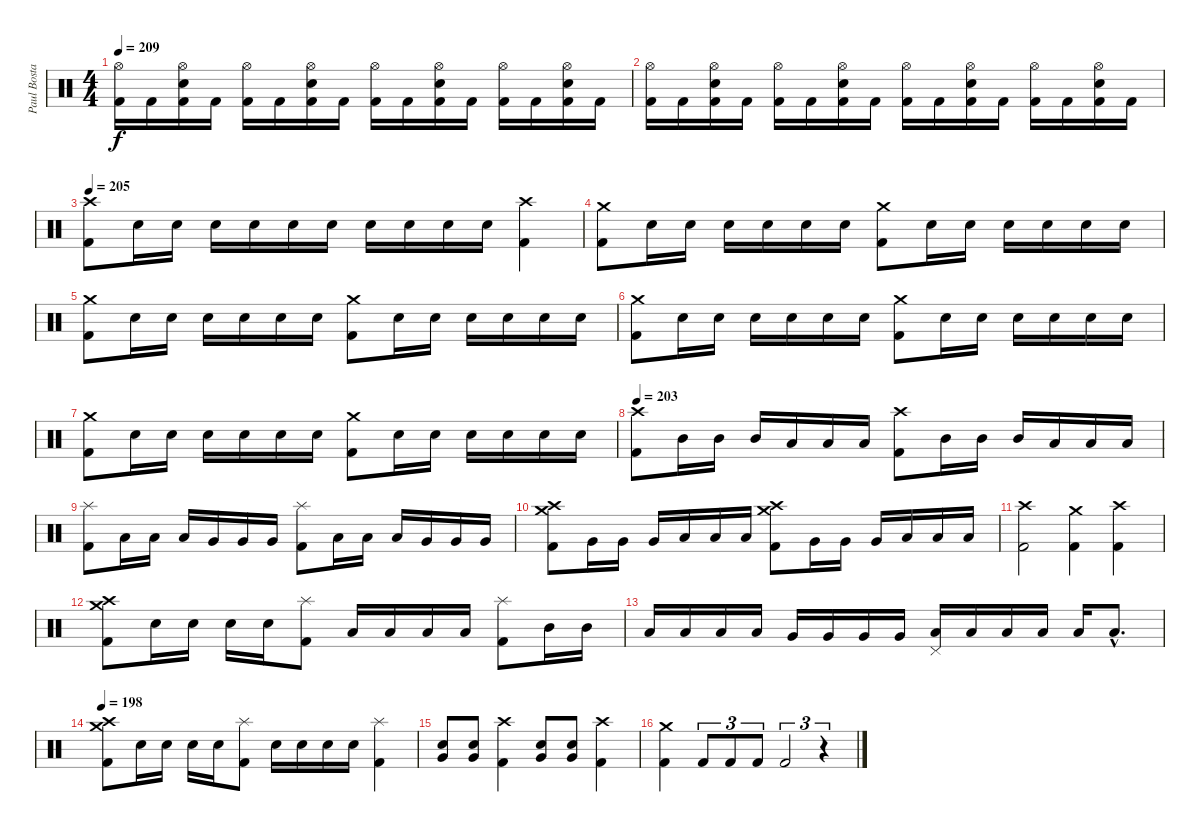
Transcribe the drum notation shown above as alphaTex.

\track ("Paul Bostaph" "Paul Bosta") {instrument percussion}
\staff {score}
\articulation defaults
\ts (4 4)
\tempo 209
\clef neutral
\ks c
("Hi-Hat (open)" "Kick (hit) 2").16{dy f} "Kick (hit) 2".16 ("Electric Snare (hit)" "Hi-Hat (open)" "Kick (hit) 2").16 "Kick (hit) 2".16 ("Hi-Hat (open)" "Kick (hit) 2").16 "Kick (hit) 2".16 ("Electric Snare (hit)" "Hi-Hat (open)" "Kick (hit) 2").16 "Kick (hit) 2".16 ("Hi-Hat (open)" "Kick (hit) 2").16 "Kick (hit) 2".16 ("Electric Snare (hit)" "Hi-Hat (open)" "Kick (hit) 2").16 "Kick (hit) 2".16 ("Hi-Hat (open)" "Kick (hit) 2").16 "Kick (hit) 2".16 ("Electric Snare (hit)" "Hi-Hat (open)" "Kick (hit) 2").16 "Kick (hit) 2".16 |
("Hi-Hat (open)" "Kick (hit) 2").16 "Kick (hit) 2".16 ("Electric Snare (hit)" "Hi-Hat (open)" "Kick (hit) 2").16 "Kick (hit) 2".16 ("Hi-Hat (open)" "Kick (hit) 2").16 "Kick (hit) 2".16 ("Electric Snare (hit)" "Hi-Hat (open)" "Kick (hit) 2").16 "Kick (hit) 2".16 ("Hi-Hat (open)" "Kick (hit) 2").16 "Kick (hit) 2".16 ("Electric Snare (hit)" "Hi-Hat (open)" "Kick (hit) 2").16 "Kick (hit) 2".16 ("Hi-Hat (open)" "Kick (hit) 2").16 "Kick (hit) 2".16 ("Electric Snare (hit)" "Hi-Hat (open)" "Kick (hit) 2").16 "Kick (hit) 2".16 |
\tempo 205
("Crash high (hit)" "Kick (hit) 2").8 "Electric Snare (hit)".16 "Electric Snare (hit)".16 "Electric Snare (hit)".16 "Electric Snare (hit)".16 "Electric Snare (hit)".16 "Electric Snare (hit)".16 "Electric Snare (hit)".16 "Electric Snare (hit)".16 "Electric Snare (hit)".16 "Electric Snare (hit)".16 ("Crash high (hit)" "Kick (hit) 2").4 |
("Crash medium (hit)" "Kick (hit) 2").8 "Electric Snare (hit)".16 "Electric Snare (hit)".16 "Electric Snare (hit)".16 "Electric Snare (hit)".16 "Electric Snare (hit)".16 "Electric Snare (hit)".16 ("Crash medium (hit)" "Kick (hit) 2").8 "Electric Snare (hit)".16 "Electric Snare (hit)".16 "Electric Snare (hit)".16 "Electric Snare (hit)".16 "Electric Snare (hit)".16 "Electric Snare (hit)".16 |
("Crash medium (hit)" "Kick (hit) 2").8 "Electric Snare (hit)".16 "Electric Snare (hit)".16 "Electric Snare (hit)".16 "Electric Snare (hit)".16 "Electric Snare (hit)".16 "Electric Snare (hit)".16 ("Crash medium (hit)" "Kick (hit) 2").8 "Electric Snare (hit)".16 "Electric Snare (hit)".16 "Electric Snare (hit)".16 "Electric Snare (hit)".16 "Electric Snare (hit)".16 "Electric Snare (hit)".16 |
("Crash medium (hit)" "Kick (hit) 2").8 "Electric Snare (hit)".16 "Electric Snare (hit)".16 "Electric Snare (hit)".16 "Electric Snare (hit)".16 "Electric Snare (hit)".16 "Electric Snare (hit)".16 ("Crash medium (hit)" "Kick (hit) 2").8 "Electric Snare (hit)".16 "Electric Snare (hit)".16 "Electric Snare (hit)".16 "Electric Snare (hit)".16 "Electric Snare (hit)".16 "Electric Snare (hit)".16 |
("Crash medium (hit)" "Kick (hit) 2").8 "Electric Snare (hit)".16 "Electric Snare (hit)".16 "Electric Snare (hit)".16 "Electric Snare (hit)".16 "Electric Snare (hit)".16 "Electric Snare (hit)".16 ("Crash medium (hit)" "Kick (hit) 2").8 "Electric Snare (hit)".16 "Electric Snare (hit)".16 "Electric Snare (hit)".16 "Electric Snare (hit)".16 "Electric Snare (hit)".16 "Electric Snare (hit)".16 |
\tempo 203
("Crash high (hit)" "Kick (hit) 2").8 "Mid Tom (hit)".16 "Mid Tom (hit)".16 "Mid Tom (hit)".16 "Low Tom (hit)".16 "Low Tom (hit)".16 "Low Tom (hit)".16 ("Crash high (hit)" "Kick (hit) 2").8 "Mid Tom (hit)".16 "Mid Tom (hit)".16 "Mid Tom (hit)".16 "Low Tom (hit)".16 "Low Tom (hit)".16 "Low Tom (hit)".16 |
("Splash (hit)" "Kick (hit) 2").8 "Low Tom (hit)".16 "Low Tom (hit)".16 "Low Tom (hit)".16 "Very Low Tom (hit)".16 "Very Low Tom (hit)".16 "Very Low Tom (hit)".16 ("Splash (hit)" "Kick (hit) 2").8 "Low Tom (hit)".16 "Low Tom (hit)".16 "Low Tom (hit)".16 "Very Low Tom (hit)".16 "Very Low Tom (hit)".16 "Very Low Tom (hit)".16 |
("Crash high (hit)" "Crash medium (hit)" "Kick (hit) 2").8 "Very Low Tom (hit)".16 "Very Low Tom (hit)".16 "Very Low Tom (hit)".16 "Low Floor Tom (hit)".16 "Low Floor Tom (hit)".16 "Low Floor Tom (hit)".16 ("Crash high (hit)" "Crash medium (hit)" "Kick (hit) 2").8 "Very Low Tom (hit)".16 "Very Low Tom (hit)".16 "Very Low Tom (hit)".16 "Low Floor Tom (hit)".16 "Low Floor Tom (hit)".16 "Low Floor Tom (hit)".16 |
("Crash high (hit)" "Kick (hit) 2").2 ("Crash medium (hit)" "Kick (hit) 2").4 ("Crash high (hit)" "Kick (hit) 2").4 |
("Crash high (hit)" "Crash medium (hit)" "Kick (hit) 2").8 "Electric Snare (hit)".16 "Electric Snare (hit)".16 "Electric Snare (hit)".16 "Electric Snare (hit)".16 ("Splash (hit)" "Kick (hit) 2").8 "Low Tom (hit)".16 "Low Tom (hit)".16 "Low Tom (hit)".16 "Low Tom (hit)".16 ("Splash (hit)" "Kick (hit) 2").8 "Mid Tom (hit)".16 "Mid Tom (hit)".16 |
"Low Tom (hit)".16 "Low Tom (hit)".16 "Low Tom (hit)".16 "Low Tom (hit)".16 "Very Low Tom (hit)".16 "Very Low Tom (hit)".16 "Very Low Tom (hit)".16 "Very Low Tom (hit)".16 ("Pedal Hi-Hat (hit)" "Low Floor Tom (hit)").16 "Low Floor Tom (hit)".16 "Low Floor Tom (hit)".16 "Low Floor Tom (hit)".16 "Low Floor Tom (hit)".16 "Low Floor Tom (hit)"{hac}.8{d} |
\tempo 198
("Crash high (hit)" "Crash medium (hit)" "Kick (hit) 2").8 "Electric Snare (hit)".16 "Electric Snare (hit)".16 "Electric Snare (hit)".16 "Electric Snare (hit)".16 ("Splash (hit)" "Kick (hit) 2").8 "Electric Snare (hit)".16 "Electric Snare (hit)".16 "Electric Snare (hit)".16 "Electric Snare (hit)".16 ("Splash (hit)" "Kick (hit) 2").4 |
("Very Low Tom (hit)" "Electric Snare (hit)").8 ("Very Low Tom (hit)" "Electric Snare (hit)").8 ("Crash high (hit)" "Kick (hit) 2").4 ("Very Low Tom (hit)" "Electric Snare (hit)").8 ("Very Low Tom (hit)" "Electric Snare (hit)").8 ("Crash high (hit)" "Kick (hit) 2").4 |
("Crash medium (hit)" "Kick (hit) 2").4 "Kick (hit) 2".8{tu (3 2)} "Kick (hit) 2".8{tu (3 2)} "Kick (hit) 2".8{tu (3 2)} "Kick (hit) 2".2{tu (3 2)} r.4{tu (3 2)}
